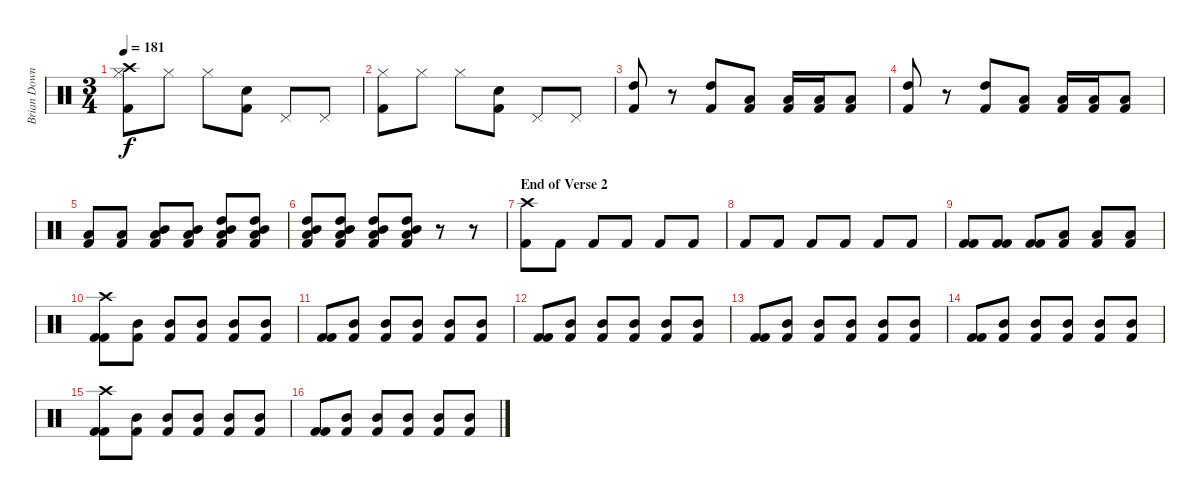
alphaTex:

\track ("Brian Downey" "Brian Down") {instrument percussion}
\staff {score}
\articulation defaults
\ts (3 4)
\tempo 181
\clef neutral
\ks c
("Crash high (hit)" "Hi-Hat (closed)" "Kick (hit) 2").8{dy f} "Hi-Hat (closed)".8 "Hi-Hat (closed)".8 ("Snare (hit) 2" "Kick (hit) 2").8 "Pedal Hi-Hat (hit)".8 "Pedal Hi-Hat (hit)".8 |
("Hi-Hat (closed)" "Kick (hit) 2").8 "Hi-Hat (closed)".8 "Hi-Hat (closed)".8 ("Snare (hit) 2" "Kick (hit) 2").8 "Pedal Hi-Hat (hit)".8 "Pedal Hi-Hat (hit)".8 |
("High Tom (hit)" "Kick (hit) 2").8 r.8 ("High Tom (hit)" "Kick (hit) 2").8 ("Low Tom (hit)" "Kick (hit) 2").8 ("Low Tom (hit)" "Kick (hit) 2").16 ("Low Tom (hit)" "Kick (hit) 2").16 ("Low Tom (hit)" "Kick (hit) 2").8 |
("High Tom (hit)" "Kick (hit) 2").8 r.8 ("High Tom (hit)" "Kick (hit) 2").8 ("Low Tom (hit)" "Kick (hit) 2").8 ("Low Tom (hit)" "Kick (hit) 2").16 ("Low Tom (hit)" "Kick (hit) 2").16 ("Low Tom (hit)" "Kick (hit) 2").8 |
("Low Tom (hit)" "Kick (hit) 2").8 ("Low Tom (hit)" "Kick (hit) 2").8 ("Mid Tom (hit)" "Low Tom (hit)" "Kick (hit) 2").8 ("Mid Tom (hit)" "Low Tom (hit)" "Kick (hit) 2").8 ("High Tom (hit)" "Mid Tom (hit)" "Low Tom (hit)" "Kick (hit) 2").8 ("High Tom (hit)" "Mid Tom (hit)" "Low Tom (hit)" "Kick (hit) 2").8 |
("High Tom (hit)" "Mid Tom (hit)" "Low Tom (hit)" "Kick (hit) 2").8 ("High Tom (hit)" "Mid Tom (hit)" "Low Tom (hit)" "Kick (hit) 2").8 ("High Tom (hit)" "Mid Tom (hit)" "Low Tom (hit)" "Kick (hit) 2").8 ("High Tom (hit)" "Mid Tom (hit)" "Low Tom (hit)" "Kick (hit) 2").8 r.8 r.8 |
\section ("" "End of Verse 2")
("Crash high (hit)" "Kick (hit) 2").8 "Kick (hit) 2".8 "Kick (hit) 2".8 "Kick (hit) 2".8 "Kick (hit) 2".8 "Kick (hit) 2".8 |
"Kick (hit) 2".8 "Kick (hit) 2".8 "Kick (hit) 2".8 "Kick (hit) 2".8 "Kick (hit) 2".8 "Kick (hit) 2".8 |
("Kick (hit) 2" "Kick (hit) 2").8 ("Kick (hit) 2" "Kick (hit) 2").8 ("Kick (hit) 2" "Kick (hit) 2").8 ("Low Tom (hit)" "Kick (hit) 2").8 ("Low Tom (hit)" "Kick (hit) 2").8 ("Low Tom (hit)" "Kick (hit) 2").8 |
("Crash high (hit)" "Kick (hit) 2" "Kick (hit) 2").8 ("Mid Tom (hit)" "Kick (hit) 2").8 ("Mid Tom (hit)" "Kick (hit) 2").8 ("Mid Tom (hit)" "Kick (hit) 2").8 ("Mid Tom (hit)" "Kick (hit) 2").8 ("Mid Tom (hit)" "Kick (hit) 2").8 |
("Kick (hit) 2" "Kick (hit) 2").8 ("Mid Tom (hit)" "Kick (hit) 2").8 ("Mid Tom (hit)" "Kick (hit) 2").8 ("Mid Tom (hit)" "Kick (hit) 2").8 ("Mid Tom (hit)" "Kick (hit) 2").8 ("Mid Tom (hit)" "Kick (hit) 2").8 |
("Kick (hit) 2" "Kick (hit) 2").8 ("Mid Tom (hit)" "Kick (hit) 2").8 ("Mid Tom (hit)" "Kick (hit) 2").8 ("Mid Tom (hit)" "Kick (hit) 2").8 ("Mid Tom (hit)" "Kick (hit) 2").8 ("Mid Tom (hit)" "Kick (hit) 2").8 |
("Kick (hit) 2" "Kick (hit) 2").8 ("Mid Tom (hit)" "Kick (hit) 2").8 ("Mid Tom (hit)" "Kick (hit) 2").8 ("Mid Tom (hit)" "Kick (hit) 2").8 ("Mid Tom (hit)" "Kick (hit) 2").8 ("Mid Tom (hit)" "Kick (hit) 2").8 |
("Kick (hit) 2" "Kick (hit) 2").8 ("Mid Tom (hit)" "Kick (hit) 2").8 ("Mid Tom (hit)" "Kick (hit) 2").8 ("Mid Tom (hit)" "Kick (hit) 2").8 ("Mid Tom (hit)" "Kick (hit) 2").8 ("Mid Tom (hit)" "Kick (hit) 2").8 |
("Crash high (hit)" "Kick (hit) 2" "Kick (hit) 2").8 ("Mid Tom (hit)" "Kick (hit) 2").8 ("Mid Tom (hit)" "Kick (hit) 2").8 ("Mid Tom (hit)" "Kick (hit) 2").8 ("Mid Tom (hit)" "Kick (hit) 2").8 ("Mid Tom (hit)" "Kick (hit) 2").8 |
("Kick (hit) 2" "Kick (hit) 2").8 ("Mid Tom (hit)" "Kick (hit) 2").8 ("Mid Tom (hit)" "Kick (hit) 2").8 ("Mid Tom (hit)" "Kick (hit) 2").8 ("Mid Tom (hit)" "Kick (hit) 2").8 ("Mid Tom (hit)" "Kick (hit) 2").8
